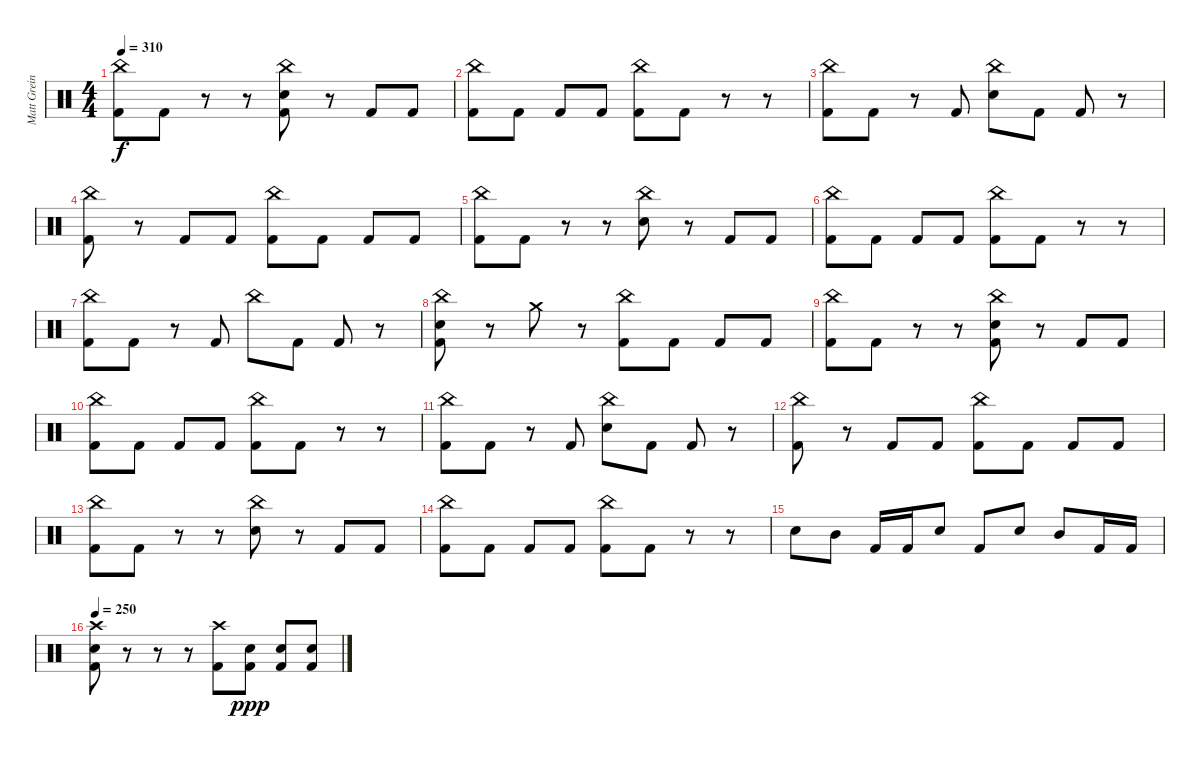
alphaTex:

\track ("Matt Greiner (Drums)" "Matt Grein") {instrument percussion}
\staff {score}
\articulation defaults
\ts (4 4)
\tempo 310
\clef neutral
\ks c
("China (hit)" "Kick (hit) 2").8{dy f} "Kick (hit) 2".8 r.8 r.8 ("China (hit)" "Electric Snare (hit)" "Kick (hit) 2").8 r.8 "Kick (hit) 2".8 "Kick (hit) 2".8 |
("China (hit)" "Kick (hit) 2").8 "Kick (hit) 2".8 "Kick (hit) 2".8 "Kick (hit) 2".8 ("China (hit)" "Kick (hit) 2").8 "Kick (hit) 2".8 r.8 r.8 |
("China (hit)" "Kick (hit) 2").8 "Kick (hit) 2".8 r.8 "Kick (hit) 2".8 ("China (hit)" "Electric Snare (hit)").8 "Kick (hit) 2".8 "Kick (hit) 2".8 r.8 |
("China (hit)" "Kick (hit) 2").8 r.8 "Kick (hit) 2".8 "Kick (hit) 2".8 ("China (hit)" "Kick (hit) 2").8 "Kick (hit) 2".8 "Kick (hit) 2".8 "Kick (hit) 2".8 |
("China (hit)" "Kick (hit) 2").8 "Kick (hit) 2".8 r.8 r.8 ("China (hit)" "Electric Snare (hit)").8 r.8 "Kick (hit) 2".8 "Kick (hit) 2".8 |
("China (hit)" "Kick (hit) 2").8 "Kick (hit) 2".8 "Kick (hit) 2".8 "Kick (hit) 2".8 ("China (hit)" "Kick (hit) 2").8 "Kick (hit) 2".8 r.8 r.8 |
("China (hit)" "Kick (hit) 2").8 "Kick (hit) 2".8 r.8 "Kick (hit) 2".8 "China (hit)".8 "Kick (hit) 2".8 "Kick (hit) 2".8 r.8 |
("China (hit)" "Electric Snare (hit)" "Kick (hit) 2").8 r.8 "Crash medium (hit)".8 r.8 ("China (hit)" "Kick (hit) 2").8 "Kick (hit) 2".8 "Kick (hit) 2".8 "Kick (hit) 2".8 |
("China (hit)" "Kick (hit) 2").8 "Kick (hit) 2".8 r.8 r.8 ("China (hit)" "Electric Snare (hit)" "Kick (hit) 2").8 r.8 "Kick (hit) 2".8 "Kick (hit) 2".8 |
("China (hit)" "Kick (hit) 2").8 "Kick (hit) 2".8 "Kick (hit) 2".8 "Kick (hit) 2".8 ("China (hit)" "Kick (hit) 2").8 "Kick (hit) 2".8 r.8 r.8 |
("China (hit)" "Kick (hit) 2").8 "Kick (hit) 2".8 r.8 "Kick (hit) 2".8 ("China (hit)" "Electric Snare (hit)").8 "Kick (hit) 2".8 "Kick (hit) 2".8 r.8 |
("China (hit)" "Kick (hit) 2").8 r.8 "Kick (hit) 2".8 "Kick (hit) 2".8 ("China (hit)" "Kick (hit) 2").8 "Kick (hit) 2".8 "Kick (hit) 2".8 "Kick (hit) 2".8 |
("China (hit)" "Kick (hit) 2").8 "Kick (hit) 2".8 r.8 r.8 ("China (hit)" "Electric Snare (hit)").8 r.8 "Kick (hit) 2".8 "Kick (hit) 2".8 |
("China (hit)" "Kick (hit) 2").8 "Kick (hit) 2".8 "Kick (hit) 2".8 "Kick (hit) 2".8 ("China (hit)" "Kick (hit) 2").8 "Kick (hit) 2".8 r.8 r.8 |
"Electric Snare (hit)".8 "Mid Tom (hit)".8 "Kick (hit) 2".16 "Kick (hit) 2".16 "Electric Snare (hit)".8 "Kick (hit) 2".8 "Electric Snare (hit)".8 "Mid Tom (hit)".8 "Kick (hit) 2".16 "Kick (hit) 2".16 |
\tempo 250
("Crash high (hit)" "Electric Snare (hit)" "Kick (hit) 2").8 r.8 r.8 r.8 ("Crash high (hit)" "Kick (hit) 2").8 ("Electric Snare (hit)" "Kick (hit) 2").8{dy ppp} ("Electric Snare (hit)" "Kick (hit) 2").8 ("Electric Snare (hit)" "Kick (hit) 2").8
